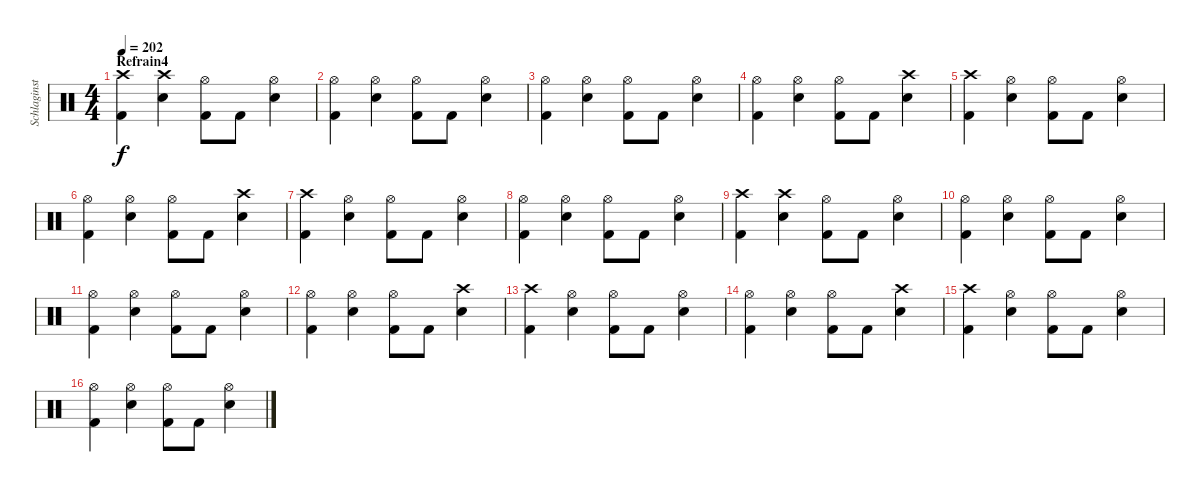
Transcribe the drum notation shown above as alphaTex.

\track ("Schlaginstrumente - Auswahl" "Schlaginst") {instrument percussion bank 1}
\staff {score}
\articulation defaults
\ts (4 4)
\section ("" "Refrain4")
\tempo 202
\clef neutral
\ks c
("Crash high (hit)" "Kick (hit) 2").4{dy f} ("Crash high (hit)" "Snare (hit) 2").4 ("Hi-Hat (open)" "Kick (hit) 2").8 "Kick (hit) 2".8 ("Hi-Hat (open)" "Snare (hit) 2").4 |
("Hi-Hat (open)" "Kick (hit) 2").4 ("Hi-Hat (open)" "Snare (hit) 2").4 ("Hi-Hat (open)" "Kick (hit) 2").8 "Kick (hit) 2".8 ("Hi-Hat (open)" "Snare (hit) 2").4 |
("Hi-Hat (open)" "Kick (hit) 2").4 ("Hi-Hat (open)" "Snare (hit) 2").4 ("Hi-Hat (open)" "Kick (hit) 2").8 "Kick (hit) 2".8 ("Hi-Hat (open)" "Snare (hit) 2").4 |
("Hi-Hat (open)" "Kick (hit) 2").4 ("Hi-Hat (open)" "Snare (hit) 2").4 ("Hi-Hat (open)" "Kick (hit) 2").8 "Kick (hit) 2".8 ("Crash high (hit)" "Snare (hit) 2").4 |
("Crash high (hit)" "Kick (hit) 2").4 ("Hi-Hat (open)" "Snare (hit) 2").4 ("Hi-Hat (open)" "Kick (hit) 2").8 "Kick (hit) 2".8 ("Hi-Hat (open)" "Snare (hit) 2").4 |
("Hi-Hat (open)" "Kick (hit) 2").4 ("Hi-Hat (open)" "Snare (hit) 2").4 ("Hi-Hat (open)" "Kick (hit) 2").8 "Kick (hit) 2".8 ("Crash high (hit)" "Snare (hit) 2").4 |
("Crash high (hit)" "Kick (hit) 2").4 ("Hi-Hat (open)" "Snare (hit) 2").4 ("Hi-Hat (open)" "Kick (hit) 2").8 "Kick (hit) 2".8 ("Hi-Hat (open)" "Snare (hit) 2").4 |
("Hi-Hat (open)" "Kick (hit) 2").4 ("Hi-Hat (open)" "Snare (hit) 2").4 ("Hi-Hat (open)" "Kick (hit) 2").8 "Kick (hit) 2".8 ("Hi-Hat (open)" "Snare (hit) 2").4 |
("Crash high (hit)" "Kick (hit) 2").4 ("Crash high (hit)" "Snare (hit) 2").4 ("Hi-Hat (open)" "Kick (hit) 2").8 "Kick (hit) 2".8 ("Hi-Hat (open)" "Snare (hit) 2").4 |
("Hi-Hat (open)" "Kick (hit) 2").4 ("Hi-Hat (open)" "Snare (hit) 2").4 ("Hi-Hat (open)" "Kick (hit) 2").8 "Kick (hit) 2".8 ("Hi-Hat (open)" "Snare (hit) 2").4 |
("Hi-Hat (open)" "Kick (hit) 2").4 ("Hi-Hat (open)" "Snare (hit) 2").4 ("Hi-Hat (open)" "Kick (hit) 2").8 "Kick (hit) 2".8 ("Hi-Hat (open)" "Snare (hit) 2").4 |
("Hi-Hat (open)" "Kick (hit) 2").4 ("Hi-Hat (open)" "Snare (hit) 2").4 ("Hi-Hat (open)" "Kick (hit) 2").8 "Kick (hit) 2".8 ("Crash high (hit)" "Snare (hit) 2").4 |
("Crash high (hit)" "Kick (hit) 2").4 ("Hi-Hat (open)" "Snare (hit) 2").4 ("Hi-Hat (open)" "Kick (hit) 2").8 "Kick (hit) 2".8 ("Hi-Hat (open)" "Snare (hit) 2").4 |
("Hi-Hat (open)" "Kick (hit) 2").4 ("Hi-Hat (open)" "Snare (hit) 2").4 ("Hi-Hat (open)" "Kick (hit) 2").8 "Kick (hit) 2".8 ("Crash high (hit)" "Snare (hit) 2").4 |
("Crash high (hit)" "Kick (hit) 2").4 ("Hi-Hat (open)" "Snare (hit) 2").4 ("Hi-Hat (open)" "Kick (hit) 2").8 "Kick (hit) 2".8 ("Hi-Hat (open)" "Snare (hit) 2").4 |
("Hi-Hat (open)" "Kick (hit) 2").4 ("Hi-Hat (open)" "Snare (hit) 2").4 ("Hi-Hat (open)" "Kick (hit) 2").8 "Kick (hit) 2".8 ("Hi-Hat (open)" "Snare (hit) 2").4
